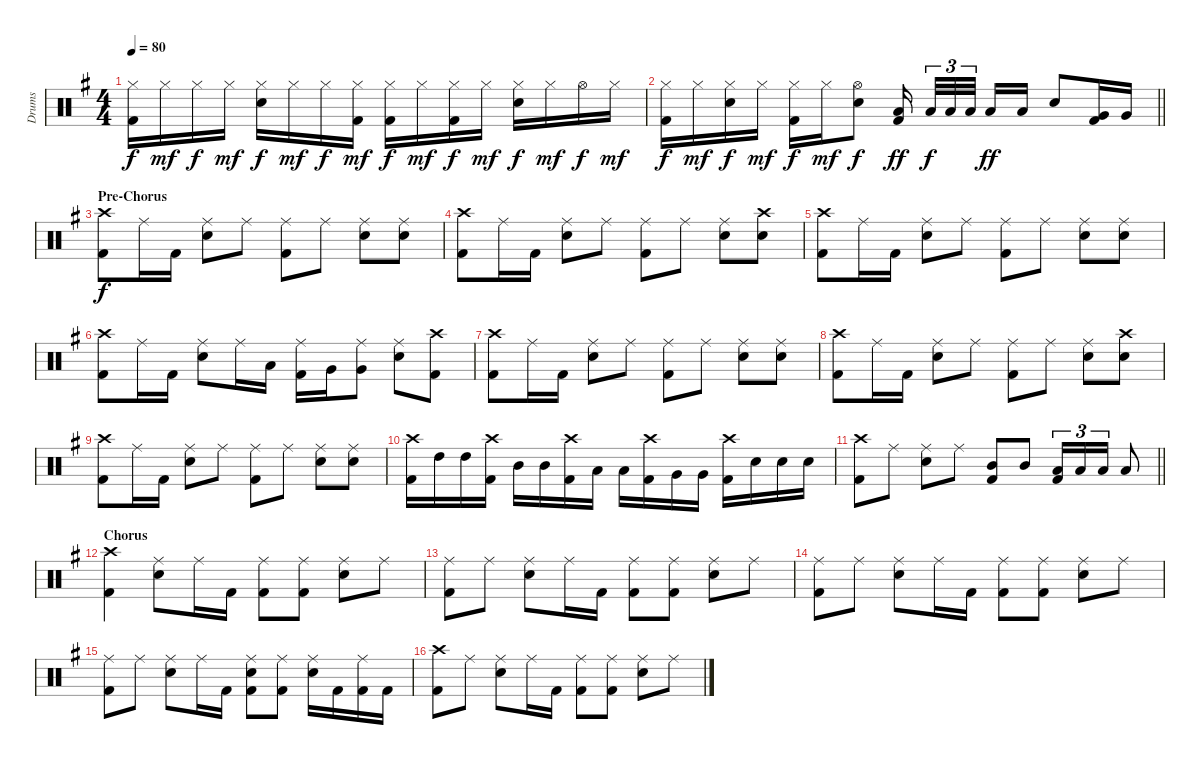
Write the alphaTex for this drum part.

\track ("Drums" "Drums") {instrument percussion}
\staff {score}
\articulation defaults
\ts (4 4)
\tempo 80
\clef neutral
\ks g
("Hi-Hat (closed)" "Kick (hit) 2").16{dy f} "Hi-Hat (closed)".16{dy mf} "Hi-Hat (closed)".16{dy f} "Hi-Hat (closed)".16{dy mf} ("Hi-Hat (closed)" "Electric Snare (hit)").16{dy f} "Hi-Hat (closed)".16{dy mf} "Hi-Hat (closed)".16{dy f} ("Hi-Hat (closed)" "Kick (hit) 2").16{dy mf} ("Hi-Hat (closed)" "Kick (hit) 2").16{dy f} "Hi-Hat (closed)".16{dy mf} ("Hi-Hat (closed)" "Kick (hit) 2").16{dy f} "Hi-Hat (closed)".16{dy mf} ("Hi-Hat (closed)" "Electric Snare (hit)").16{dy f} "Hi-Hat (closed)".16{dy mf} "Hi-Hat (open)".16{dy f} "Hi-Hat (closed)".16{dy mf} |
\barLineRight lightlight
("Hi-Hat (closed)" "Kick (hit) 2").16{dy f} "Hi-Hat (closed)".16{dy mf} ("Hi-Hat (closed)" "Electric Snare (hit)").16{dy f} "Hi-Hat (closed)".16{dy mf} ("Hi-Hat (closed)" "Kick (hit) 2").16{dy f} "Hi-Hat (closed)".16{dy mf} ("Hi-Hat (open)" "Electric Snare (hit)").8{dy f} ("Low Tom (hit)" "Kick (hit) 2").16{dy ff beam splitsecondary} "Low Tom (hit)".32{tu (3 2) dy f} "Low Tom (hit)".32{tu (3 2)} "Low Tom (hit)".32{tu (3 2) beam splitsecondary} "Low Tom (hit)".16{dy ff} "Low Tom (hit)".16 "Electric Snare (hit)".8 ("Very Low Tom (hit)" "Kick (hit) 2").16 "Very Low Tom (hit)".16 |
\section ("" "Pre-Chorus")
("Crash high (hit)" "Kick (hit) 2").8{dy f} "Ride (middle)".16 "Kick (hit) 2".16 ("Ride (middle)" "Electric Snare (hit)").8 "Ride (middle)".8 ("Ride (middle)" "Kick (hit) 2").8 "Ride (middle)".8 ("Ride (middle)" "Electric Snare (hit)").8 ("Ride (middle)" "Electric Snare (hit)").8 |
("Crash high (hit)" "Kick (hit) 2").8 "Ride (middle)".16 "Kick (hit) 2".16 ("Ride (middle)" "Electric Snare (hit)").8 "Ride (middle)".8 ("Ride (middle)" "Kick (hit) 2").8 "Ride (middle)".8 ("Ride (middle)" "Electric Snare (hit)").8 ("Crash high (hit)" "Electric Snare (hit)").8 |
("Crash high (hit)" "Kick (hit) 2").8 "Ride (middle)".16 "Kick (hit) 2".16 ("Ride (middle)" "Electric Snare (hit)").8 "Ride (middle)".8 ("Ride (middle)" "Kick (hit) 2").8 "Ride (middle)".8 ("Ride (middle)" "Electric Snare (hit)").8 ("Ride (middle)" "Electric Snare (hit)").8 |
("Crash high (hit)" "Kick (hit) 2").8 "Ride (middle)".16 "Kick (hit) 2".16 ("Ride (middle)" "Electric Snare (hit)").8 "Ride (middle)".16 "Low Tom (hit)".16 ("Ride (middle)" "Kick (hit) 2").16 "Very Low Tom (hit)".16 ("Ride (middle)" "Very Low Tom (hit)").8 ("Ride (middle)" "Electric Snare (hit)").8 ("Crash high (hit)" "Kick (hit) 2").8 |
("Crash high (hit)" "Kick (hit) 2").8 "Ride (middle)".16 "Kick (hit) 2".16 ("Ride (middle)" "Electric Snare (hit)").8 "Ride (middle)".8 ("Ride (middle)" "Kick (hit) 2").8 "Ride (middle)".8 ("Ride (middle)" "Electric Snare (hit)").8 ("Ride (middle)" "Electric Snare (hit)").8 |
("Crash high (hit)" "Kick (hit) 2").8 "Ride (middle)".16 "Kick (hit) 2".16 ("Ride (middle)" "Electric Snare (hit)").8 "Ride (middle)".8 ("Ride (middle)" "Kick (hit) 2").8 "Ride (middle)".8 ("Ride (middle)" "Electric Snare (hit)").8 ("Crash high (hit)" "Electric Snare (hit)").8 |
("Crash high (hit)" "Kick (hit) 2").8 "Ride (middle)".16 "Kick (hit) 2".16 ("Ride (middle)" "Electric Snare (hit)").8 "Ride (middle)".8 ("Ride (middle)" "Kick (hit) 2").8 "Ride (middle)".8 ("Ride (middle)" "Electric Snare (hit)").8 ("Ride (middle)" "Electric Snare (hit)").8 |
("Crash high (hit)" "Kick (hit) 2").16 "High Tom (hit)".16 "High Tom (hit)".16 ("Crash high (hit)" "Kick (hit) 2").16 "Mid Tom (hit)".16 "Mid Tom (hit)".16 ("Crash high (hit)" "Kick (hit) 2").16 "Low Tom (hit)".16 "Low Tom (hit)".16 ("Crash high (hit)" "Kick (hit) 2").16 "Very Low Tom (hit)".16 "Very Low Tom (hit)".16 ("Crash high (hit)" "Kick (hit) 2").16 "Electric Snare (hit)".16 "Electric Snare (hit)".16 "Electric Snare (hit)".16 |
\barLineRight lightlight
("Crash high (hit)" "Kick (hit) 2").8 "Ride (middle)".8 ("Ride (middle)" "Electric Snare (hit)").8 "Ride (middle)".8 ("Mid Tom (hit)" "Kick (hit) 2").8 "Mid Tom (hit)".8 ("Low Tom (hit)" "Kick (hit) 2").16{tu (3 2)} "Low Tom (hit)".16{tu (3 2)} "Low Tom (hit)".16{tu (3 2)} "Low Tom (hit)".8 |
\section ("" "Chorus")
("Crash high (hit)" "Kick (hit) 2").4 ("Ride (middle)" "Electric Snare (hit)").8 "Ride (middle)".16 "Kick (hit) 2".16 ("Ride (middle)" "Kick (hit) 2").8 ("Ride (middle)" "Kick (hit) 2").8 ("Ride (middle)" "Electric Snare (hit)").8 "Ride (middle)".8 |
("Ride (middle)" "Kick (hit) 2").8 "Ride (middle)".8 ("Ride (middle)" "Electric Snare (hit)").8 "Ride (middle)".16 "Kick (hit) 2".16 ("Ride (middle)" "Kick (hit) 2").8 ("Ride (middle)" "Kick (hit) 2").8 ("Ride (middle)" "Electric Snare (hit)").8 "Ride (middle)".8 |
("Ride (middle)" "Kick (hit) 2").8 "Ride (middle)".8 ("Ride (middle)" "Electric Snare (hit)").8 "Ride (middle)".16 "Kick (hit) 2".16 ("Ride (middle)" "Kick (hit) 2").8 ("Ride (middle)" "Kick (hit) 2").8 ("Ride (middle)" "Electric Snare (hit)").8 "Ride (middle)".8 |
("Ride (middle)" "Kick (hit) 2").8 "Ride (middle)".8 ("Ride (middle)" "Electric Snare (hit)").8 "Ride (middle)".16 "Kick (hit) 2".16 ("Ride (middle)" "Electric Snare (hit)" "Kick (hit) 2").8 ("Ride (middle)" "Kick (hit) 2").8 ("Ride (middle)" "Electric Snare (hit)").16 "Kick (hit) 2".16 ("Ride (middle)" "Kick (hit) 2").16 "Kick (hit) 2".16 |
("Crash high (hit)" "Kick (hit) 2").8 "Ride (middle)".8 ("Ride (middle)" "Electric Snare (hit)").8 "Ride (middle)".16 "Kick (hit) 2".16 ("Ride (middle)" "Kick (hit) 2").8 ("Ride (middle)" "Kick (hit) 2").8 ("Ride (middle)" "Electric Snare (hit)").8 "Ride (middle)".8
